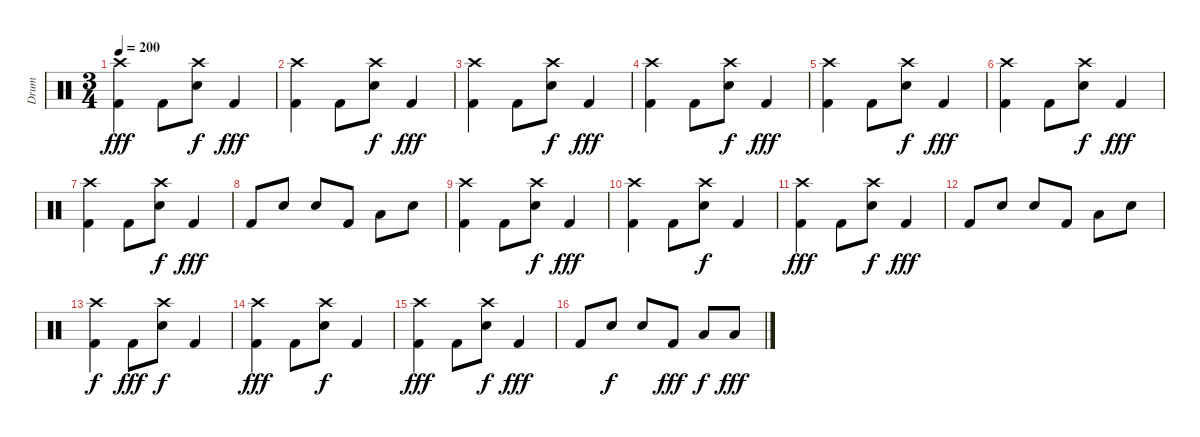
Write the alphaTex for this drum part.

\track ("Drum" "Drum") {instrument percussion}
\staff {score}
\articulation defaults
\ts (3 4)
\tempo 200
\clef neutral
\ks c
("Crash high (hit)" "Kick (hit) 2").4{dy fff} "Kick (hit) 2".8 ("Crash high (hit)" "Snare (hit) 2").8{dy f} "Kick (hit) 2".4{dy fff} |
("Crash high (hit)" "Kick (hit) 2").4 "Kick (hit) 2".8 ("Crash high (hit)" "Snare (hit) 2").8{dy f} "Kick (hit) 2".4{dy fff} |
("Crash high (hit)" "Kick (hit) 2").4 "Kick (hit) 2".8 ("Crash high (hit)" "Snare (hit) 2").8{dy f} "Kick (hit) 2".4{dy fff} |
("Crash high (hit)" "Kick (hit) 2").4 "Kick (hit) 2".8 ("Crash high (hit)" "Snare (hit) 2").8{dy f} "Kick (hit) 2".4{dy fff} |
("Crash high (hit)" "Kick (hit) 2").4 "Kick (hit) 2".8 ("Crash high (hit)" "Snare (hit) 2").8{dy f} "Kick (hit) 2".4{dy fff} |
("Crash high (hit)" "Kick (hit) 2").4 "Kick (hit) 2".8 ("Crash high (hit)" "Snare (hit) 2").8{dy f} "Kick (hit) 2".4{dy fff} |
("Crash high (hit)" "Kick (hit) 2").4 "Kick (hit) 2".8 ("Crash high (hit)" "Snare (hit) 2").8{dy f} "Kick (hit) 2".4{dy fff} |
"Kick (hit) 2".8 "Snare (hit) 2".8 "Snare (hit) 2".8 "Kick (hit) 2".8 "Low Tom (hit)".8 "Snare (hit) 2".8 |
("Crash high (hit)" "Kick (hit) 2").4 "Kick (hit) 2".8 ("Crash high (hit)" "Snare (hit) 2").8{dy f} "Kick (hit) 2".4{dy fff} |
("Crash high (hit)" "Kick (hit) 2").4 "Kick (hit) 2".8 ("Crash high (hit)" "Snare (hit) 2").8{dy f} "Kick (hit) 2".4 |
("Crash high (hit)" "Kick (hit) 2").4{dy fff} "Kick (hit) 2".8 ("Crash high (hit)" "Snare (hit) 2").8{dy f} "Kick (hit) 2".4{dy fff} |
"Kick (hit) 2".8 "Snare (hit) 2".8 "Snare (hit) 2".8 "Kick (hit) 2".8 "Low Tom (hit)".8 "Snare (hit) 2".8 |
("Crash high (hit)" "Kick (hit) 2").4{dy f} "Kick (hit) 2".8{dy fff} ("Crash high (hit)" "Snare (hit) 2").8{dy f} "Kick (hit) 2".4 |
("Crash high (hit)" "Kick (hit) 2").4{dy fff} "Kick (hit) 2".8 ("Crash high (hit)" "Snare (hit) 2").8{dy f} "Kick (hit) 2".4 |
("Crash high (hit)" "Kick (hit) 2").4{dy fff} "Kick (hit) 2".8 ("Crash high (hit)" "Snare (hit) 2").8{dy f} "Kick (hit) 2".4{dy fff} |
"Kick (hit) 2".8 "Snare (hit) 2".8{dy f} "Snare (hit) 2".8 "Kick (hit) 2".8{dy fff} "Low Tom (hit)".8{dy f} "Low Tom (hit)".8{dy fff}
